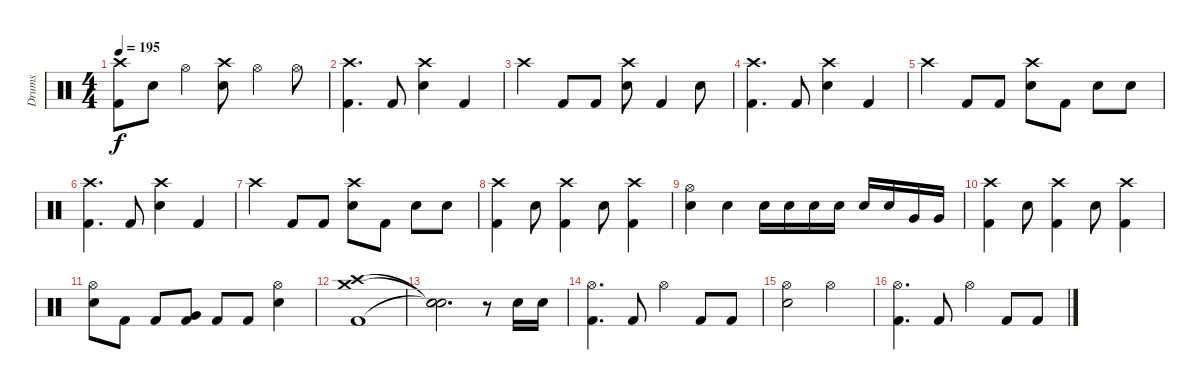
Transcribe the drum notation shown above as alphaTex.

\track ("Drums" "Drums") {instrument percussion}
\staff {score}
\articulation defaults
\ts (4 4)
\tempo 195
\clef neutral
\ks c
("Crash high (hit)" "Kick (hit) 2").8{dy f} "Electric Snare (hit)".8 "Hi-Hat (open)".4 ("Crash high (hit)" "Electric Snare (hit)").8 "Hi-Hat (open)".4 "Hi-Hat (open)".8 |
("Crash high (hit)" "Kick (hit) 2").4{d} "Kick (hit) 2".8 ("Crash high (hit)" "Electric Snare (hit)").4 "Kick (hit) 2".4 |
"Crash high (hit)".4 "Kick (hit) 2".8 "Kick (hit) 2".8 ("Crash high (hit)" "Electric Snare (hit)").8 "Kick (hit) 2".4 "Electric Snare (hit)".8 |
("Crash high (hit)" "Kick (hit) 2").4{d} "Kick (hit) 2".8 ("Crash high (hit)" "Electric Snare (hit)").4 "Kick (hit) 2".4 |
"Crash high (hit)".4 "Kick (hit) 2".8 "Kick (hit) 2".8 ("Crash high (hit)" "Electric Snare (hit)").8 "Kick (hit) 2".8 "Electric Snare (hit)".8 "Electric Snare (hit)".8 |
("Crash high (hit)" "Kick (hit) 2").4{d} "Kick (hit) 2".8 ("Crash high (hit)" "Electric Snare (hit)").4 "Kick (hit) 2".4 |
"Crash high (hit)".4 "Kick (hit) 2".8 "Kick (hit) 2".8 ("Crash high (hit)" "Electric Snare (hit)").8 "Kick (hit) 2".8 "Electric Snare (hit)".8 "Electric Snare (hit)".8 |
("Crash high (hit)" "Kick (hit) 2").4 "Electric Snare (hit)".8 ("Crash high (hit)" "Kick (hit) 2").4 "Electric Snare (hit)".8 ("Crash high (hit)" "Kick (hit) 2").4 |
("Hi-Hat (open)" "Electric Snare (hit)").4 "Electric Snare (hit)".4 "Electric Snare (hit)".16 "Electric Snare (hit)".16 "Electric Snare (hit)".16 "Electric Snare (hit)".16 "Electric Snare (hit)".16 "Electric Snare (hit)".16 "Very Low Tom (hit)".16 "Very Low Tom (hit)".16 |
("Crash high (hit)" "Kick (hit) 2").4 "Electric Snare (hit)".8 ("Crash high (hit)" "Kick (hit) 2").4 "Electric Snare (hit)".8 ("Crash high (hit)" "Kick (hit) 2").4 |
("Hi-Hat (open)" "Electric Snare (hit)").8 "Kick (hit) 2".8 "Kick (hit) 2".8 ("Very Low Tom (hit)" "Kick (hit) 2").8 "Kick (hit) 2".8 "Kick (hit) 2".8 ("Hi-Hat (open)" "Electric Snare (hit)").4 |
("Crash medium (hit)" "Crash high (hit)" "Kick (hit) 2").1 |
("Snare (hit)"{t} "Snare (hit)"{t} "Snare (hit)"{t}).2{d} r.8 "Electric Snare (hit)".16 "Electric Snare (hit)".16 |
("Hi-Hat (open)" "Kick (hit) 2").4{d} "Kick (hit) 2".8 "Hi-Hat (open)".4 "Kick (hit) 2".8 "Kick (hit) 2".8 |
("Hi-Hat (open)" "Electric Snare (hit)").2 "Hi-Hat (open)".2 |
("Hi-Hat (open)" "Kick (hit) 2").4{d} "Kick (hit) 2".8 "Hi-Hat (open)".4 "Kick (hit) 2".8 "Kick (hit) 2".8
